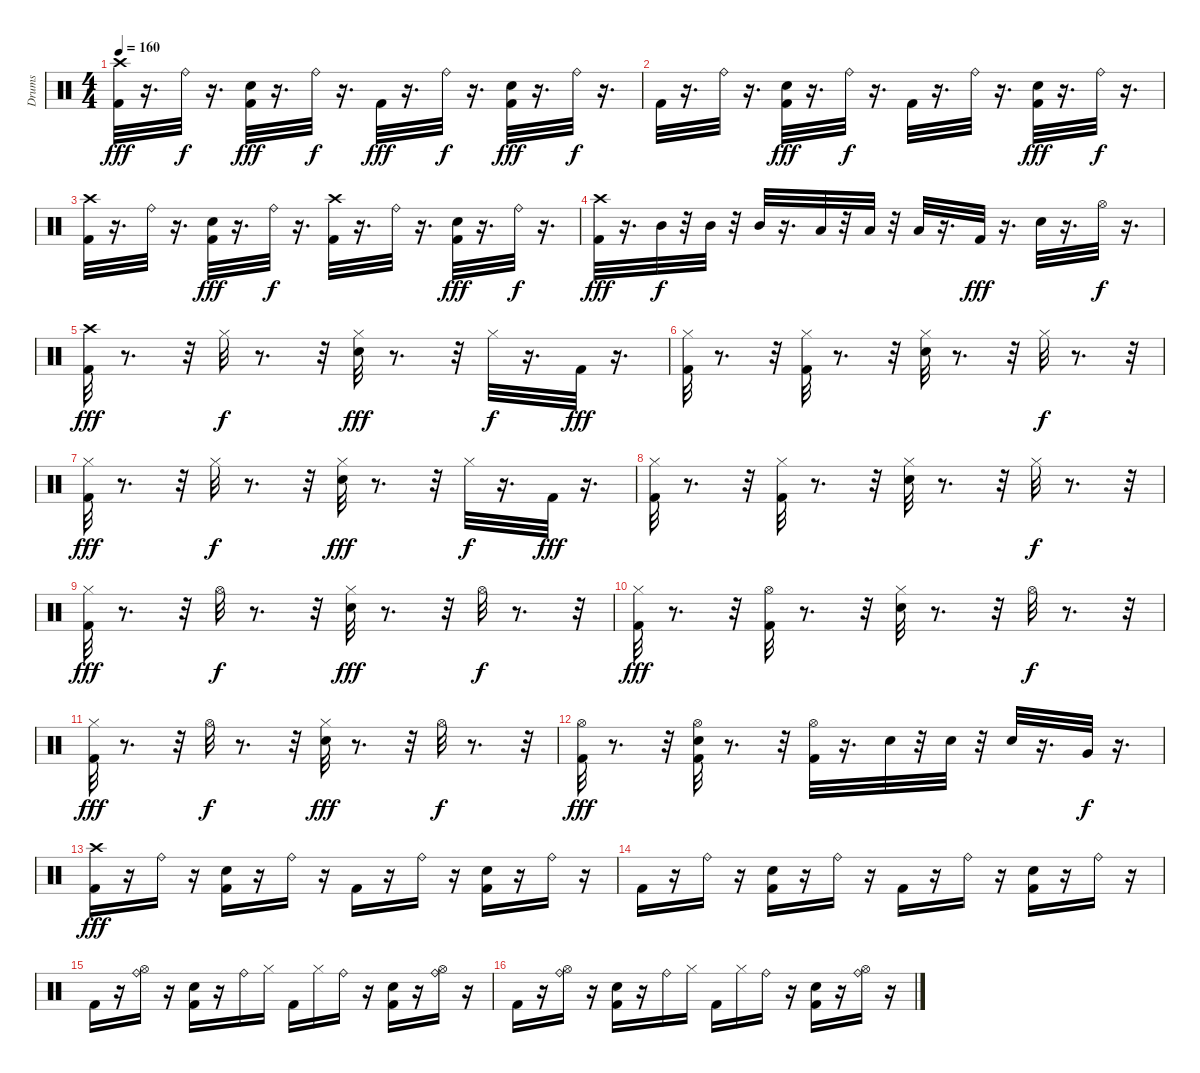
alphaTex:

\track ("Drums" "Drums") {instrument percussion}
\staff {score}
\articulation defaults
\ts (4 4)
\tempo 160
\clef neutral
\ks c
("Crash high (hit)" "Kick (hit) 2").32{dy fff} r.16{d} "Ride (bell)".32{dy f} r.16{d} ("Electric Snare (hit)" "Kick (hit) 2").32{dy fff} r.16{d} "Ride (bell)".32{dy f} r.16{d} "Kick (hit) 2".32{dy fff} r.16{d} "Ride (bell)".32{dy f} r.16{d} ("Electric Snare (hit)" "Kick (hit) 2").32{dy fff} r.16{d} "Ride (bell)".32{dy f} r.16{d} |
"Kick (hit) 2".32 r.16{d} "Ride (bell)".32 r.16{d} ("Electric Snare (hit)" "Kick (hit) 2").32{dy fff} r.16{d} "Ride (bell)".32{dy f} r.16{d} "Kick (hit) 2".32 r.16{d} "Ride (bell)".32 r.16{d} ("Kick (hit) 2" "Electric Snare (hit)").32{dy fff} r.16{d} "Ride (bell)".32{dy f} r.16{d} |
("Kick (hit) 2" "Crash high (hit)").32 r.16{d} "Ride (bell)".32 r.16{d} ("Electric Snare (hit)" "Kick (hit) 2").32{dy fff} r.16{d} "Ride (bell)".32{dy f} r.16{d} ("Kick (hit) 2" "Crash high (hit)").32 r.16{d} "Ride (bell)".32 r.16{d} ("Electric Snare (hit)" "Kick (hit) 2").32{dy fff} r.16{d} "Ride (bell)".32{dy f} r.16{d} |
("Kick (hit) 2" "Crash high (hit)").32{dy fff} r.16{d} "Mid Tom (hit)".32{dy f} r.32 "Mid Tom (hit)".32 r.32 "Mid Tom (hit)".32 r.16{d} "Low Tom (hit)".32 r.32 "Low Tom (hit)".32 r.32 "Low Tom (hit)".32 r.16{d} "Kick (hit) 2".32{dy fff} r.16{d} "Electric Snare (hit)".32 r.16{d} "Hi-Hat (open)".32{dy f} r.16{d} |
("Kick (hit) 2" "Crash high (hit)").32{dy fff} r.8{d} r.32 "Hi-Hat (closed)".32{dy f} r.8{d} r.32 ("Hi-Hat (closed)" "Electric Snare (hit)").32{dy fff} r.8{d} r.32 "Hi-Hat (closed)".32{dy f} r.16{d} "Kick (hit) 2".32{dy fff} r.16{d} |
("Hi-Hat (closed)" "Kick (hit) 2").32 r.8{d} r.32 ("Hi-Hat (closed)" "Kick (hit) 2").32 r.8{d} r.32 ("Hi-Hat (closed)" "Electric Snare (hit)").32 r.8{d} r.32 "Hi-Hat (closed)".32{dy f} r.8{d} r.32 |
("Hi-Hat (closed)" "Kick (hit) 2").32{dy fff} r.8{d} r.32 "Hi-Hat (closed)".32{dy f} r.8{d} r.32 ("Hi-Hat (closed)" "Electric Snare (hit)").32{dy fff} r.8{d} r.32 "Hi-Hat (closed)".32{dy f} r.16{d} "Kick (hit) 2".32{dy fff} r.16{d} |
("Hi-Hat (closed)" "Kick (hit) 2").32 r.8{d} r.32 ("Kick (hit) 2" "Hi-Hat (closed)").32 r.8{d} r.32 ("Hi-Hat (closed)" "Electric Snare (hit)").32 r.8{d} r.32 "Hi-Hat (closed)".32{dy f} r.8{d} r.32 |
("Hi-Hat (closed)" "Kick (hit) 2").32{dy fff} r.8{d} r.32 "Hi-Hat (open)".32{dy f} r.8{d} r.32 ("Hi-Hat (closed)" "Electric Snare (hit)").32{dy fff} r.8{d} r.32 "Hi-Hat (open)".32{dy f} r.8{d} r.32 |
("Kick (hit) 2" "Hi-Hat (closed)").32{dy fff} r.8{d} r.32 ("Hi-Hat (open)" "Kick (hit) 2").32 r.8{d} r.32 ("Electric Snare (hit)" "Hi-Hat (closed)").32 r.8{d} r.32 "Hi-Hat (open)".32{dy f} r.8{d} r.32 |
("Hi-Hat (closed)" "Kick (hit) 2").32{dy fff} r.8{d} r.32 "Hi-Hat (open)".32{dy f} r.8{d} r.32 ("Hi-Hat (closed)" "Electric Snare (hit)").32{dy fff} r.8{d} r.32 "Hi-Hat (open)".32{dy f} r.8{d} r.32 |
("Hi-Hat (open)" "Kick (hit) 2").32{dy fff} r.8{d} r.32 ("Hi-Hat (open)" "Electric Snare (hit)" "Kick (hit) 2").32 r.8{d} r.32 ("Hi-Hat (open)" "Kick (hit) 2").32 r.16{d} "Electric Snare (hit)".32 r.32 "Electric Snare (hit)".32 r.32 "Electric Snare (hit)".32 r.16{d} "Very Low Tom (hit)".32{dy f} r.16{d} |
("Crash high (hit)" "Kick (hit) 2").16{dy fff} r.16 "Ride (bell)".16 r.16 ("Electric Snare (hit)" "Kick (hit) 2").16 r.16 "Ride (bell)".16 r.16 "Kick (hit) 2".16 r.16 "Ride (bell)".16 r.16 ("Kick (hit) 2" "Electric Snare (hit)").16 r.16 "Ride (bell)".16 r.16 |
"Kick (hit) 2".16 r.16 "Ride (bell)".16 r.16 ("Kick (hit) 2" "Electric Snare (hit)").16 r.16 "Ride (bell)".16 r.16 "Kick (hit) 2".16 r.16 "Ride (bell)".16 r.16 ("Kick (hit) 2" "Electric Snare (hit)").16 r.16 "Ride (bell)".16 r.16 |
"Kick (hit) 2".16 r.16 ("Ride (bell)" "Hi-Hat (open)").16 r.16 ("Kick (hit) 2" "Electric Snare (hit)").16 r.16 "Ride (bell)".16 "Hi-Hat (closed)".16 "Kick (hit) 2".16 "Hi-Hat (closed)".16 "Ride (bell)".16 r.16 ("Kick (hit) 2" "Electric Snare (hit)").16 r.16 ("Ride (bell)" "Hi-Hat (open)").16 r.16 |
"Kick (hit) 2".16 r.16 ("Hi-Hat (open)" "Ride (bell)").16 r.16 ("Kick (hit) 2" "Electric Snare (hit)").16 r.16 "Ride (bell)".16 "Hi-Hat (closed)".16 "Kick (hit) 2".16 "Hi-Hat (closed)".16 "Ride (bell)".16 r.16 ("Electric Snare (hit)" "Kick (hit) 2").16 r.16 ("Hi-Hat (open)" "Ride (bell)").16 r.16
